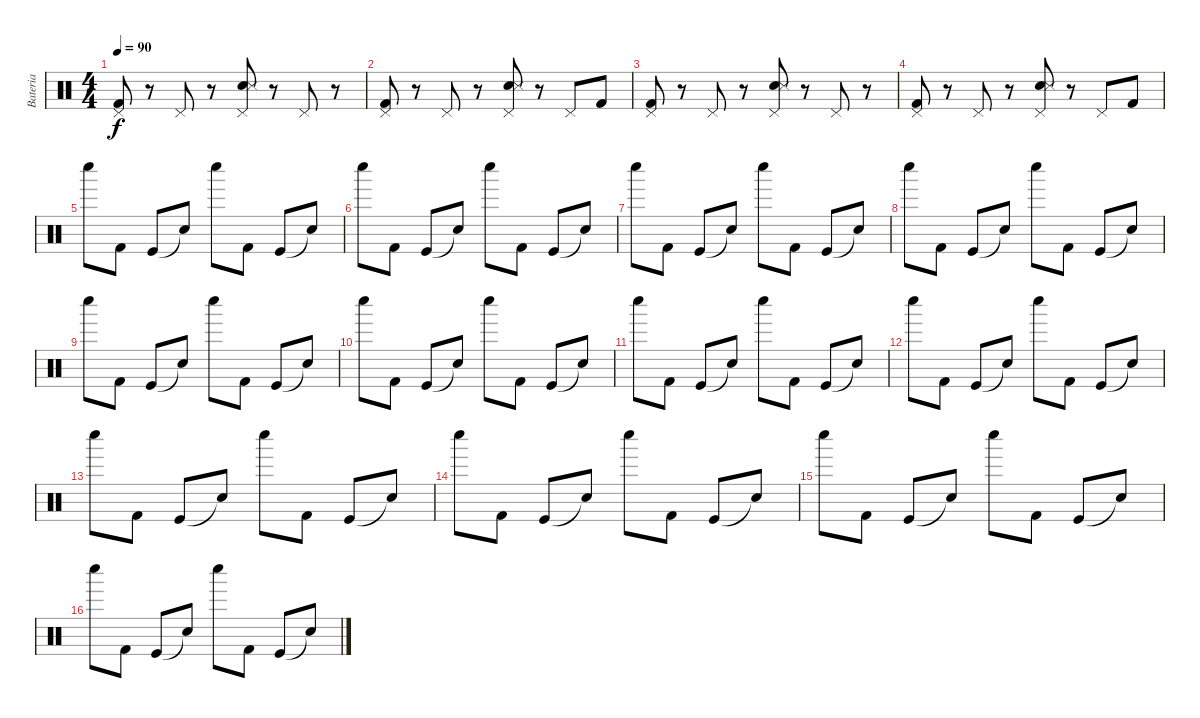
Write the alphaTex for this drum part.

\track ("Bateria" "Bateria") {instrument percussion}
\staff {score}
\articulation defaults
\ts (4 4)
\tempo 90
\clef neutral
\ks c
("Pedal Hi-Hat (hit)" "Kick (hit) 2").8{dy f} r.8 "Pedal Hi-Hat (hit)".8 r.8 ("Pedal Hi-Hat (hit)" "Snare (hit) 2" "Snare (side stick) 3").8 r.8 "Pedal Hi-Hat (hit)".8 r.8 |
("Pedal Hi-Hat (hit)" "Kick (hit) 2").8 r.8 "Pedal Hi-Hat (hit)".8 r.8 ("Pedal Hi-Hat (hit)" "Snare (hit) 2" "Snare (side stick) 3").8 r.8 "Pedal Hi-Hat (hit)".8 "Kick (hit) 2".8 |
("Pedal Hi-Hat (hit)" "Kick (hit) 2").8 r.8 "Pedal Hi-Hat (hit)".8 r.8 ("Pedal Hi-Hat (hit)" "Snare (hit) 2" "Snare (side stick) 3").8 r.8 "Pedal Hi-Hat (hit)".8 r.8 |
("Pedal Hi-Hat (hit)" "Kick (hit) 2").8 r.8 "Pedal Hi-Hat (hit)".8 r.8 ("Pedal Hi-Hat (hit)" "Snare (hit) 2" "Snare (side stick) 3").8 r.8 "Pedal Hi-Hat (hit)".8 "Kick (hit) 2".8 |
"Whistle low (hit)".8 "Kick (hit) 2".8 "Kick (hit)".8 "Snare (hit)"{t}.8 "Whistle low (hit)".8 "Kick (hit) 2".8 "Kick (hit)".8 "Snare (hit)"{t}.8 |
"Whistle low (hit)".8 "Kick (hit) 2".8 "Kick (hit)".8 "Snare (hit)"{t}.8 "Whistle low (hit)".8 "Kick (hit) 2".8 "Kick (hit)".8 "Snare (hit)"{t}.8 |
"Whistle low (hit)".8 "Kick (hit) 2".8 "Kick (hit)".8 "Snare (hit)"{t}.8 "Whistle low (hit)".8 "Kick (hit) 2".8 "Kick (hit)".8 "Snare (hit)"{t}.8 |
"Whistle low (hit)".8 "Kick (hit) 2".8 "Kick (hit)".8 "Snare (hit)"{t}.8 "Whistle low (hit)".8 "Kick (hit) 2".8 "Kick (hit)".8 "Snare (hit)"{t}.8 |
"Whistle low (hit)".8 "Kick (hit) 2".8 "Kick (hit)".8 "Snare (hit)"{t}.8 "Whistle low (hit)".8 "Kick (hit) 2".8 "Kick (hit)".8 "Snare (hit)"{t}.8 |
"Whistle low (hit)".8 "Kick (hit) 2".8 "Kick (hit)".8 "Snare (hit)"{t}.8 "Whistle low (hit)".8 "Kick (hit) 2".8 "Kick (hit)".8 "Snare (hit)"{t}.8 |
"Whistle low (hit)".8 "Kick (hit) 2".8 "Kick (hit)".8 "Snare (hit)"{t}.8 "Whistle low (hit)".8 "Kick (hit) 2".8 "Kick (hit)".8 "Snare (hit)"{t}.8 |
"Whistle low (hit)".8 "Kick (hit) 2".8 "Kick (hit)".8 "Snare (hit)"{t}.8 "Whistle low (hit)".8 "Kick (hit) 2".8 "Kick (hit)".8 "Snare (hit)"{t}.8 |
"Whistle low (hit)".8 "Kick (hit) 2".8 "Kick (hit)".8 "Snare (hit)"{t}.8 "Whistle low (hit)".8 "Kick (hit) 2".8 "Kick (hit)".8 "Snare (hit)"{t}.8 |
"Whistle low (hit)".8 "Kick (hit) 2".8 "Kick (hit)".8 "Snare (hit)"{t}.8 "Whistle low (hit)".8 "Kick (hit) 2".8 "Kick (hit)".8 "Snare (hit)"{t}.8 |
"Whistle low (hit)".8 "Kick (hit) 2".8 "Kick (hit)".8 "Snare (hit)"{t}.8 "Whistle low (hit)".8 "Kick (hit) 2".8 "Kick (hit)".8 "Snare (hit)"{t}.8 |
"Whistle low (hit)".8 "Kick (hit) 2".8 "Kick (hit)".8 "Snare (hit)"{t}.8 "Whistle low (hit)".8 "Kick (hit) 2".8 "Kick (hit)".8 "Snare (hit)"{t}.8
